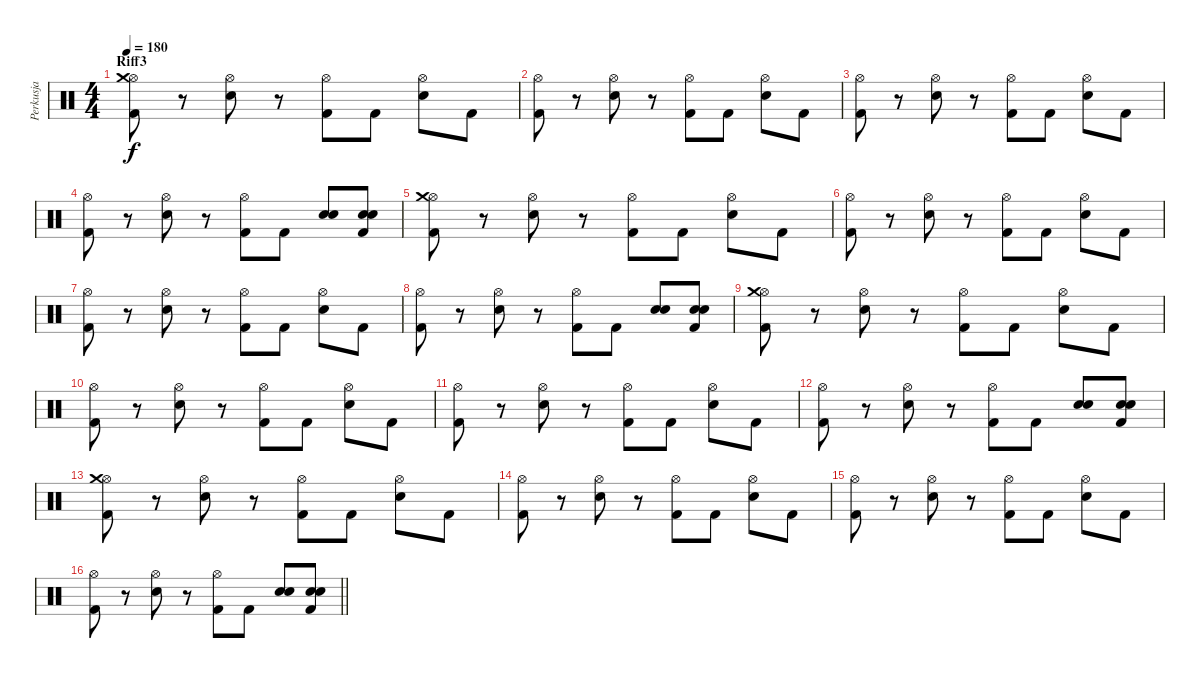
\track ("Perkusja" "Perkusja") {instrument percussion}
\staff {score}
\articulation defaults
\ts (4 4)
\section ("" "Riff3")
\tempo 180
\clef neutral
\ks c
("Hi-Hat (open)" "Crash medium (hit)" "Kick (hit) 2").8{dy f} r.8 ("Hi-Hat (open)" "Electric Snare (hit)").8 r.8 ("Hi-Hat (open)" "Kick (hit) 2").8 "Kick (hit) 2".8 ("Hi-Hat (open)" "Electric Snare (hit)").8 "Kick (hit) 2".8 |
("Hi-Hat (open)" "Kick (hit) 2").8 r.8 ("Hi-Hat (open)" "Electric Snare (hit)").8 r.8 ("Hi-Hat (open)" "Kick (hit) 2").8 "Kick (hit) 2".8 ("Hi-Hat (open)" "Electric Snare (hit)").8 "Kick (hit) 2".8 |
("Hi-Hat (open)" "Kick (hit) 2").8 r.8 ("Hi-Hat (open)" "Electric Snare (hit)").8 r.8 ("Hi-Hat (open)" "Kick (hit) 2").8 "Kick (hit) 2".8 ("Hi-Hat (open)" "Electric Snare (hit)").8 "Kick (hit) 2".8 |
("Hi-Hat (open)" "Kick (hit) 2").8 r.8 ("Hi-Hat (open)" "Electric Snare (hit)").8 r.8 ("Hi-Hat (open)" "Kick (hit) 2").8 "Kick (hit) 2".8 ("Snare (hit) 2" "Electric Snare (hit)").8 ("Snare (hit) 2" "Electric Snare (hit)" "Kick (hit) 2").8 |
("Hi-Hat (open)" "Crash medium (hit)" "Kick (hit) 2").8 r.8 ("Hi-Hat (open)" "Electric Snare (hit)").8 r.8 ("Hi-Hat (open)" "Kick (hit) 2").8 "Kick (hit) 2".8 ("Hi-Hat (open)" "Electric Snare (hit)").8 "Kick (hit) 2".8 |
("Hi-Hat (open)" "Kick (hit) 2").8 r.8 ("Hi-Hat (open)" "Electric Snare (hit)").8 r.8 ("Hi-Hat (open)" "Kick (hit) 2").8 "Kick (hit) 2".8 ("Hi-Hat (open)" "Electric Snare (hit)").8 "Kick (hit) 2".8 |
("Hi-Hat (open)" "Kick (hit) 2").8 r.8 ("Hi-Hat (open)" "Electric Snare (hit)").8 r.8 ("Hi-Hat (open)" "Kick (hit) 2").8 "Kick (hit) 2".8 ("Hi-Hat (open)" "Electric Snare (hit)").8 "Kick (hit) 2".8 |
("Hi-Hat (open)" "Kick (hit) 2").8 r.8 ("Hi-Hat (open)" "Electric Snare (hit)").8 r.8 ("Hi-Hat (open)" "Kick (hit) 2").8 "Kick (hit) 2".8 ("Snare (hit) 2" "Electric Snare (hit)").8 ("Snare (hit) 2" "Electric Snare (hit)" "Kick (hit) 2").8 |
("Hi-Hat (open)" "Crash medium (hit)" "Kick (hit) 2").8 r.8 ("Hi-Hat (open)" "Electric Snare (hit)").8 r.8 ("Hi-Hat (open)" "Kick (hit) 2").8 "Kick (hit) 2".8 ("Hi-Hat (open)" "Electric Snare (hit)").8 "Kick (hit) 2".8 |
("Hi-Hat (open)" "Kick (hit) 2").8 r.8 ("Hi-Hat (open)" "Electric Snare (hit)").8 r.8 ("Hi-Hat (open)" "Kick (hit) 2").8 "Kick (hit) 2".8 ("Hi-Hat (open)" "Electric Snare (hit)").8 "Kick (hit) 2".8 |
("Hi-Hat (open)" "Kick (hit) 2").8 r.8 ("Hi-Hat (open)" "Electric Snare (hit)").8 r.8 ("Hi-Hat (open)" "Kick (hit) 2").8 "Kick (hit) 2".8 ("Hi-Hat (open)" "Electric Snare (hit)").8 "Kick (hit) 2".8 |
("Hi-Hat (open)" "Kick (hit) 2").8 r.8 ("Hi-Hat (open)" "Electric Snare (hit)").8 r.8 ("Hi-Hat (open)" "Kick (hit) 2").8 "Kick (hit) 2".8 ("Snare (hit) 2" "Electric Snare (hit)").8 ("Snare (hit) 2" "Electric Snare (hit)" "Kick (hit) 2").8 |
("Hi-Hat (open)" "Crash medium (hit)" "Kick (hit) 2").8 r.8 ("Hi-Hat (open)" "Electric Snare (hit)").8 r.8 ("Hi-Hat (open)" "Kick (hit) 2").8 "Kick (hit) 2".8 ("Hi-Hat (open)" "Electric Snare (hit)").8 "Kick (hit) 2".8 |
("Hi-Hat (open)" "Kick (hit) 2").8 r.8 ("Hi-Hat (open)" "Electric Snare (hit)").8 r.8 ("Hi-Hat (open)" "Kick (hit) 2").8 "Kick (hit) 2".8 ("Hi-Hat (open)" "Electric Snare (hit)").8 "Kick (hit) 2".8 |
("Hi-Hat (open)" "Kick (hit) 2").8 r.8 ("Hi-Hat (open)" "Electric Snare (hit)").8 r.8 ("Hi-Hat (open)" "Kick (hit) 2").8 "Kick (hit) 2".8 ("Hi-Hat (open)" "Electric Snare (hit)").8 "Kick (hit) 2".8 |
\barLineRight lightlight
("Hi-Hat (open)" "Kick (hit) 2").8 r.8 ("Hi-Hat (open)" "Electric Snare (hit)").8 r.8 ("Hi-Hat (open)" "Kick (hit) 2").8 "Kick (hit) 2".8 ("Snare (hit) 2" "Electric Snare (hit)").8 ("Snare (hit) 2" "Electric Snare (hit)" "Kick (hit) 2").8
